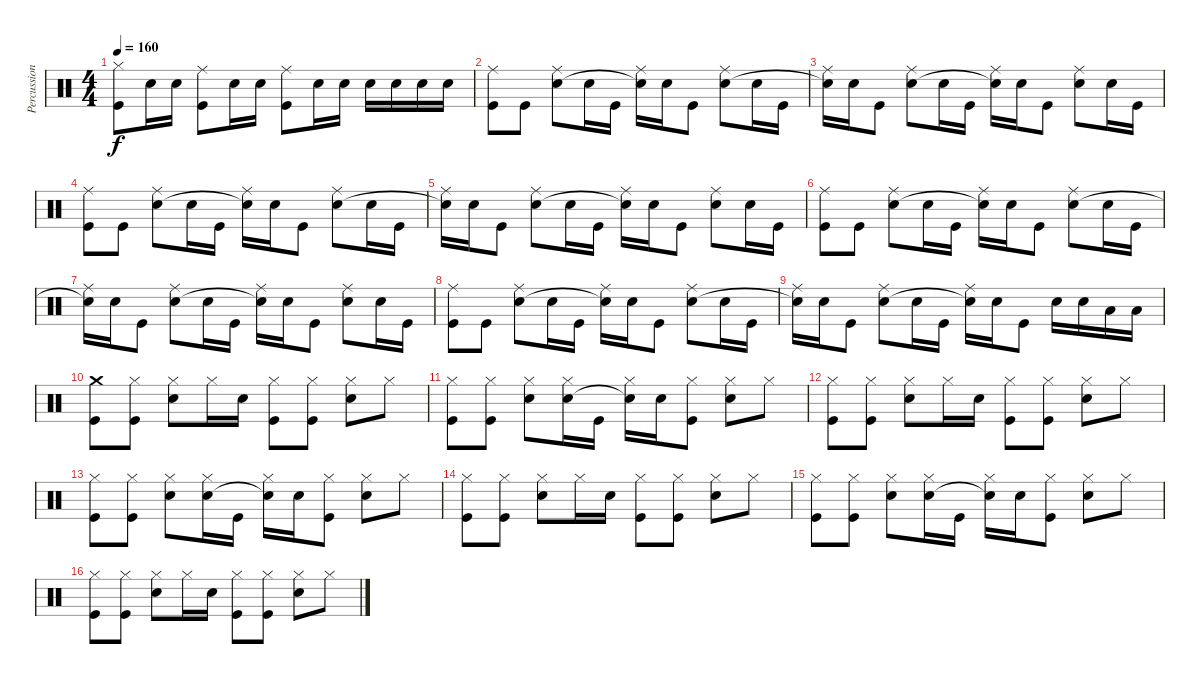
\track ("Percussion" "Percussion") {instrument percussion}
\staff {score}
\articulation defaults
\ts (4 4)
\tempo 160
\clef neutral
\ks c
("Hi-Hat (closed)" "Kick (hit)").8{dy f} "Snare (hit) 2".16 "Snare (hit) 2".16 ("Ride (middle)" "Kick (hit)").8 "Snare (hit) 2".16 "Snare (hit) 2".16 ("Ride (middle)" "Kick (hit)").8 "Snare (hit) 2".16 "Snare (hit) 2".16 "Snare (hit) 2".16 "Snare (hit) 2".16 "Snare (hit) 2".16 "Snare (hit) 2".16 |
("Ride (middle)" "Kick (hit)").8 "Kick (hit)".8 ("Ride (middle)" "Snare (hit) 2").8 "Snare (hit) 2".16 "Kick (hit)".16 ("Ride (middle)" "Snare (hit)"{t}).16 "Snare (hit) 2".16 "Kick (hit)".8 ("Ride (middle)" "Snare (hit) 2").8 "Snare (hit) 2".16 "Kick (hit)".16 |
("Ride (middle)" "Snare (hit)"{t}).16 "Snare (hit) 2".16 "Kick (hit)".8 ("Ride (middle)" "Snare (hit) 2").8 "Snare (hit) 2".16 "Kick (hit)".16 ("Ride (middle)" "Snare (hit)"{t}).16 "Snare (hit) 2".16 "Kick (hit)".8 ("Ride (middle)" "Snare (hit) 2").8 "Snare (hit) 2".16 "Kick (hit)".16 |
("Ride (middle)" "Kick (hit)").8 "Kick (hit)".8 ("Ride (middle)" "Snare (hit) 2").8 "Snare (hit) 2".16 "Kick (hit)".16 ("Ride (middle)" "Snare (hit)"{t}).16 "Snare (hit) 2".16 "Kick (hit)".8 ("Ride (middle)" "Snare (hit) 2").8 "Snare (hit) 2".16 "Kick (hit)".16 |
("Ride (middle)" "Snare (hit)"{t}).16 "Snare (hit) 2".16 "Kick (hit)".8 ("Ride (middle)" "Snare (hit) 2").8 "Snare (hit) 2".16 "Kick (hit)".16 ("Ride (middle)" "Snare (hit)"{t}).16 "Snare (hit) 2".16 "Kick (hit)".8 ("Ride (middle)" "Snare (hit) 2").8 "Snare (hit) 2".16 "Kick (hit)".16 |
("Ride (middle)" "Kick (hit)").8 "Kick (hit)".8 ("Ride (middle)" "Snare (hit) 2").8 "Snare (hit) 2".16 "Kick (hit)".16 ("Ride (middle)" "Snare (hit)"{t}).16 "Snare (hit) 2".16 "Kick (hit)".8 ("Ride (middle)" "Snare (hit) 2").8 "Snare (hit) 2".16 "Kick (hit)".16 |
("Ride (middle)" "Snare (hit)"{t}).16 "Snare (hit) 2".16 "Kick (hit)".8 ("Ride (middle)" "Snare (hit) 2").8 "Snare (hit) 2".16 "Kick (hit)".16 ("Ride (middle)" "Snare (hit)"{t}).16 "Snare (hit) 2".16 "Kick (hit)".8 ("Ride (middle)" "Snare (hit) 2").8 "Snare (hit) 2".16 "Kick (hit)".16 |
("Ride (middle)" "Kick (hit)").8 "Kick (hit)".8 ("Ride (middle)" "Snare (hit) 2").8 "Snare (hit) 2".16 "Kick (hit)".16 ("Ride (middle)" "Snare (hit)"{t}).16 "Snare (hit) 2".16 "Kick (hit)".8 ("Ride (middle)" "Snare (hit) 2").8 "Snare (hit) 2".16 "Kick (hit)".16 |
("Ride (middle)" "Snare (hit)"{t}).16 "Snare (hit) 2".16 "Kick (hit)".8 ("Ride (middle)" "Snare (hit) 2").8 "Snare (hit) 2".16 "Kick (hit)".16 ("Ride (middle)" "Snare (hit)"{t}).16 "Snare (hit) 2".16 "Kick (hit)".8 "Snare (hit) 2".16 "Snare (hit) 2".16 "Low Tom (hit)".16 "Low Tom (hit)".16 |
("Crash medium (hit)" "Kick (hit)").8 ("Hi-Hat (closed)" "Kick (hit)").8 ("Hi-Hat (closed)" "Snare (hit) 2").8 "Hi-Hat (closed)".16 "Snare (hit) 2".16 ("Hi-Hat (closed)" "Kick (hit)").8 ("Hi-Hat (closed)" "Kick (hit)").8 ("Hi-Hat (closed)" "Snare (hit) 2").8 "Hi-Hat (closed)".8 |
("Hi-Hat (closed)" "Kick (hit)").8 ("Hi-Hat (closed)" "Kick (hit)").8 ("Hi-Hat (closed)" "Snare (hit) 2").8 ("Hi-Hat (closed)" "Snare (hit) 2").16 "Kick (hit)".16 ("Hi-Hat (closed)" "Snare (hit)"{t}).16 "Snare (hit) 2".16 ("Hi-Hat (closed)" "Kick (hit)").8 ("Hi-Hat (closed)" "Snare (hit) 2").8 "Hi-Hat (closed)".8 |
("Hi-Hat (closed)" "Kick (hit)").8 ("Hi-Hat (closed)" "Kick (hit)").8 ("Hi-Hat (closed)" "Snare (hit) 2").8 "Hi-Hat (closed)".16 "Snare (hit) 2".16 ("Hi-Hat (closed)" "Kick (hit)").8 ("Hi-Hat (closed)" "Kick (hit)").8 ("Hi-Hat (closed)" "Snare (hit) 2").8 "Hi-Hat (closed)".8 |
("Hi-Hat (closed)" "Kick (hit)").8 ("Hi-Hat (closed)" "Kick (hit)").8 ("Hi-Hat (closed)" "Snare (hit) 2").8 ("Hi-Hat (closed)" "Snare (hit) 2").16 "Kick (hit)".16 ("Hi-Hat (closed)" "Snare (hit)"{t}).16 "Snare (hit) 2".16 ("Hi-Hat (closed)" "Kick (hit)").8 ("Hi-Hat (closed)" "Snare (hit) 2").8 "Hi-Hat (closed)".8 |
("Hi-Hat (closed)" "Kick (hit)").8 ("Hi-Hat (closed)" "Kick (hit)").8 ("Hi-Hat (closed)" "Snare (hit) 2").8 "Hi-Hat (closed)".16 "Snare (hit) 2".16 ("Hi-Hat (closed)" "Kick (hit)").8 ("Hi-Hat (closed)" "Kick (hit)").8 ("Hi-Hat (closed)" "Snare (hit) 2").8 "Hi-Hat (closed)".8 |
("Hi-Hat (closed)" "Kick (hit)").8 ("Hi-Hat (closed)" "Kick (hit)").8 ("Hi-Hat (closed)" "Snare (hit) 2").8 ("Hi-Hat (closed)" "Snare (hit) 2").16 "Kick (hit)".16 ("Hi-Hat (closed)" "Snare (hit)"{t}).16 "Snare (hit) 2".16 ("Hi-Hat (closed)" "Kick (hit)").8 ("Hi-Hat (closed)" "Snare (hit) 2").8 "Hi-Hat (closed)".8 |
("Hi-Hat (closed)" "Kick (hit)").8 ("Hi-Hat (closed)" "Kick (hit)").8 ("Hi-Hat (closed)" "Snare (hit) 2").8 "Hi-Hat (closed)".16 "Snare (hit) 2".16 ("Hi-Hat (closed)" "Kick (hit)").8 ("Hi-Hat (closed)" "Kick (hit)").8 ("Hi-Hat (closed)" "Snare (hit) 2").8 "Hi-Hat (closed)".8
